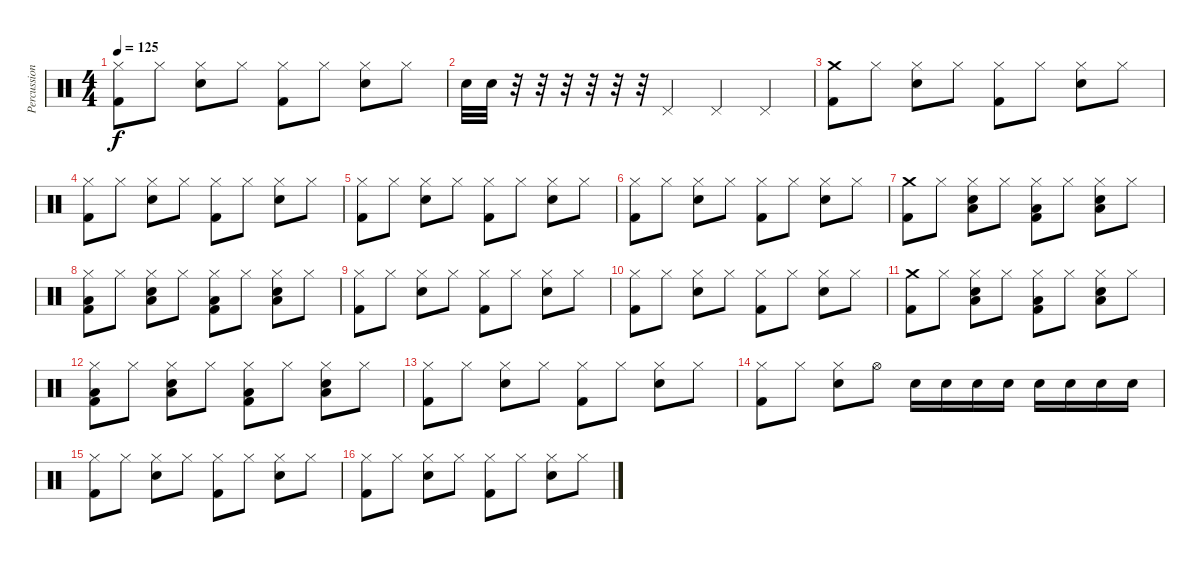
\track ("Percussions" "Percussion") {instrument percussion}
\staff {score}
\articulation defaults
\ts (4 4)
\tempo 125
\clef neutral
\ks c
("Hi-Hat (closed)" "Kick (hit) 2").8{dy f} "Hi-Hat (closed)".8 ("Hi-Hat (closed)" "Snare (hit) 2").8 "Hi-Hat (closed)".8 ("Hi-Hat (closed)" "Kick (hit) 2").8 "Hi-Hat (closed)".8 ("Hi-Hat (closed)" "Snare (hit) 2").8 "Hi-Hat (closed)".8 |
"Snare (hit) 2".32 "Snare (hit) 2".32 r.32 r.32 r.32 r.32 r.32 r.32 "Pedal Hi-Hat (hit)".4 "Pedal Hi-Hat (hit)".4 "Pedal Hi-Hat (hit)".4 |
("Crash medium (hit)" "Kick (hit) 2").8 "Hi-Hat (closed)".8 ("Hi-Hat (closed)" "Snare (hit) 2").8 "Hi-Hat (closed)".8 ("Hi-Hat (closed)" "Kick (hit) 2").8 "Hi-Hat (closed)".8 ("Hi-Hat (closed)" "Snare (hit) 2").8 "Hi-Hat (closed)".8 |
("Hi-Hat (closed)" "Kick (hit) 2").8 "Hi-Hat (closed)".8 ("Hi-Hat (closed)" "Snare (hit) 2").8 "Hi-Hat (closed)".8 ("Hi-Hat (closed)" "Kick (hit) 2").8 "Hi-Hat (closed)".8 ("Hi-Hat (closed)" "Snare (hit) 2").8 "Hi-Hat (closed)".8 |
("Hi-Hat (closed)" "Kick (hit) 2").8 "Hi-Hat (closed)".8 ("Hi-Hat (closed)" "Snare (hit) 2").8 "Hi-Hat (closed)".8 ("Hi-Hat (closed)" "Kick (hit) 2").8 "Hi-Hat (closed)".8 ("Hi-Hat (closed)" "Snare (hit) 2").8 "Hi-Hat (closed)".8 |
("Hi-Hat (closed)" "Kick (hit) 2").8 "Hi-Hat (closed)".8 ("Hi-Hat (closed)" "Snare (hit) 2").8 "Hi-Hat (closed)".8 ("Hi-Hat (closed)" "Kick (hit) 2").8 "Hi-Hat (closed)".8 ("Hi-Hat (closed)" "Snare (hit) 2").8 "Hi-Hat (closed)".8 |
("Crash medium (hit)" "Kick (hit) 2").8 "Hi-Hat (closed)".8 ("Hi-Hat (closed)" "Low Tom (hit)" "Snare (hit) 2").8 "Hi-Hat (closed)".8 ("Hi-Hat (closed)" "Low Tom (hit)" "Kick (hit) 2").8 "Hi-Hat (closed)".8 ("Hi-Hat (closed)" "Low Tom (hit)" "Snare (hit) 2").8 "Hi-Hat (closed)".8 |
("Hi-Hat (closed)" "Low Tom (hit)" "Kick (hit) 2").8 "Hi-Hat (closed)".8 ("Hi-Hat (closed)" "Low Tom (hit)" "Snare (hit) 2").8 "Hi-Hat (closed)".8 ("Hi-Hat (closed)" "Low Tom (hit)" "Kick (hit) 2").8 "Hi-Hat (closed)".8 ("Hi-Hat (closed)" "Low Tom (hit)" "Snare (hit) 2").8 "Hi-Hat (closed)".8 |
("Hi-Hat (closed)" "Kick (hit) 2").8 "Hi-Hat (closed)".8 ("Hi-Hat (closed)" "Snare (hit) 2").8 "Hi-Hat (closed)".8 ("Hi-Hat (closed)" "Kick (hit) 2").8 "Hi-Hat (closed)".8 ("Hi-Hat (closed)" "Snare (hit) 2").8 "Hi-Hat (closed)".8 |
("Hi-Hat (closed)" "Kick (hit) 2").8 "Hi-Hat (closed)".8 ("Hi-Hat (closed)" "Snare (hit) 2").8 "Hi-Hat (closed)".8 ("Hi-Hat (closed)" "Kick (hit) 2").8 "Hi-Hat (closed)".8 ("Hi-Hat (closed)" "Snare (hit) 2").8 "Hi-Hat (closed)".8 |
("Crash medium (hit)" "Kick (hit) 2").8 "Hi-Hat (closed)".8 ("Hi-Hat (closed)" "Low Tom (hit)" "Snare (hit) 2").8 "Hi-Hat (closed)".8 ("Hi-Hat (closed)" "Low Tom (hit)" "Kick (hit) 2").8 "Hi-Hat (closed)".8 ("Hi-Hat (closed)" "Low Tom (hit)" "Snare (hit) 2").8 "Hi-Hat (closed)".8 |
("Hi-Hat (closed)" "Low Tom (hit)" "Kick (hit) 2").8 "Hi-Hat (closed)".8 ("Hi-Hat (closed)" "Low Tom (hit)" "Snare (hit) 2").8 "Hi-Hat (closed)".8 ("Hi-Hat (closed)" "Low Tom (hit)" "Kick (hit) 2").8 "Hi-Hat (closed)".8 ("Hi-Hat (closed)" "Low Tom (hit)" "Snare (hit) 2").8 "Hi-Hat (closed)".8 |
("Hi-Hat (closed)" "Kick (hit) 2").8 "Hi-Hat (closed)".8 ("Hi-Hat (closed)" "Snare (hit) 2").8 "Hi-Hat (closed)".8 ("Hi-Hat (closed)" "Kick (hit) 2").8 "Hi-Hat (closed)".8 ("Hi-Hat (closed)" "Snare (hit) 2").8 "Hi-Hat (closed)".8 |
("Hi-Hat (closed)" "Kick (hit) 2").8 "Hi-Hat (closed)".8 ("Hi-Hat (closed)" "Snare (hit) 2").8 "Hi-Hat (open)".8 "Snare (hit) 2".16 "Snare (hit) 2".16 "Snare (hit) 2".16 "Snare (hit) 2".16 "Snare (hit) 2".16 "Snare (hit) 2".16 "Snare (hit) 2".16 "Snare (hit) 2".16 |
("Hi-Hat (closed)" "Kick (hit) 2").8 "Hi-Hat (closed)".8 ("Hi-Hat (closed)" "Snare (hit) 2").8 "Hi-Hat (closed)".8 ("Hi-Hat (closed)" "Kick (hit) 2").8 "Hi-Hat (closed)".8 ("Hi-Hat (closed)" "Snare (hit) 2").8 "Hi-Hat (closed)".8 |
("Hi-Hat (closed)" "Kick (hit) 2").8 "Hi-Hat (closed)".8 ("Hi-Hat (closed)" "Snare (hit) 2").8 "Hi-Hat (closed)".8 ("Hi-Hat (closed)" "Kick (hit) 2").8 "Hi-Hat (closed)".8 ("Hi-Hat (closed)" "Snare (hit) 2").8 "Hi-Hat (closed)".8
